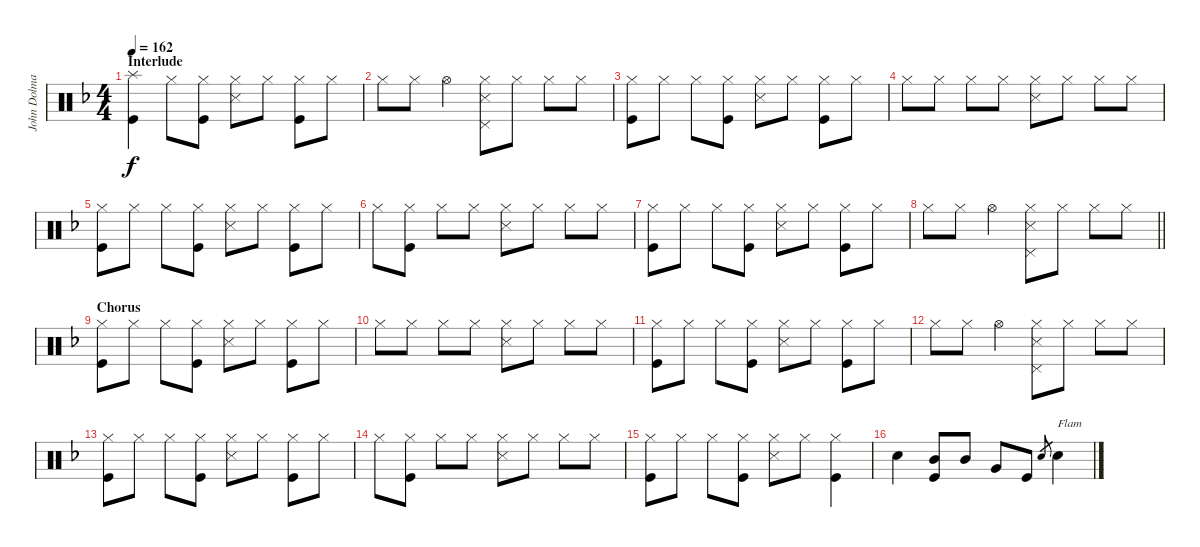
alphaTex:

\track ("John Dolmayan" "John Dolma") {instrument percussion}
\staff {score}
\articulation defaults
\ts (4 4)
\section ("" "Interlude")
\tempo 162
\clef neutral
\ks dminor
("Splash (hit)" "Kick (hit)").4{dy f} "Hi-Hat (closed)".8 ("Hi-Hat (closed)" "Kick (hit)").8 ("Hi-Hat (closed)" "Snare (side stick) 3").8 "Hi-Hat (closed)".8 ("Hi-Hat (closed)" "Kick (hit)").8 "Hi-Hat (closed)".8 |
"Hi-Hat (closed)".8 "Hi-Hat (closed)".8 "Hi-Hat (open)".4 ("Hi-Hat (closed)" "Pedal Hi-Hat (hit)" "Snare (side stick) 3").8 "Hi-Hat (closed)".8 "Hi-Hat (closed)".8 "Hi-Hat (closed)".8 |
("Hi-Hat (closed)" "Kick (hit)").8 "Hi-Hat (closed)".8 "Hi-Hat (closed)".8 ("Hi-Hat (closed)" "Kick (hit)").8 ("Hi-Hat (closed)" "Snare (side stick) 3").8 "Hi-Hat (closed)".8 ("Hi-Hat (closed)" "Kick (hit)").8 "Hi-Hat (closed)".8 |
"Hi-Hat (closed)".8 "Hi-Hat (closed)".8 "Hi-Hat (closed)".8 "Hi-Hat (closed)".8 ("Hi-Hat (closed)" "Snare (side stick) 3").8 "Hi-Hat (closed)".8 "Hi-Hat (closed)".8 "Hi-Hat (closed)".8 |
("Hi-Hat (closed)" "Kick (hit)").8 "Hi-Hat (closed)".8 "Hi-Hat (closed)".8 ("Hi-Hat (closed)" "Kick (hit)").8 ("Hi-Hat (closed)" "Snare (side stick) 3").8 "Hi-Hat (closed)".8 ("Hi-Hat (closed)" "Kick (hit)").8 "Hi-Hat (closed)".8 |
"Hi-Hat (closed)".8 ("Hi-Hat (closed)" "Kick (hit)").8 "Hi-Hat (closed)".8 "Hi-Hat (closed)".8 ("Hi-Hat (closed)" "Snare (side stick) 3").8 "Hi-Hat (closed)".8 "Hi-Hat (closed)".8 "Hi-Hat (closed)".8 |
("Hi-Hat (closed)" "Kick (hit)").8 "Hi-Hat (closed)".8 "Hi-Hat (closed)".8 ("Hi-Hat (closed)" "Kick (hit)").8 ("Hi-Hat (closed)" "Snare (side stick) 3").8 "Hi-Hat (closed)".8 ("Hi-Hat (closed)" "Kick (hit)").8 "Hi-Hat (closed)".8 |
\barLineRight lightlight "Hi-Hat (closed)".8 "Hi-Hat (closed)".8 "Hi-Hat (open)".4
("Hi-Hat (closed)" "Pedal Hi-Hat (hit)" "Snare (side stick) 3").8 "Hi-Hat (closed)".8 "Hi-Hat (closed)".8 "Hi-Hat (closed)".8 |
\section ("" "Chorus")
("Hi-Hat (closed)" "Kick (hit)").8 "Hi-Hat (closed)".8 "Hi-Hat (closed)".8 ("Hi-Hat (closed)" "Kick (hit)").8 ("Hi-Hat (closed)" "Snare (side stick) 3").8 "Hi-Hat (closed)".8 ("Hi-Hat (closed)" "Kick (hit)").8 "Hi-Hat (closed)".8 |
"Hi-Hat (closed)".8 "Hi-Hat (closed)".8 "Hi-Hat (closed)".8 "Hi-Hat (closed)".8 ("Hi-Hat (closed)" "Snare (side stick) 3").8 "Hi-Hat (closed)".8 "Hi-Hat (closed)".8 "Hi-Hat (closed)".8 |
("Hi-Hat (closed)" "Kick (hit)").8 "Hi-Hat (closed)".8 "Hi-Hat (closed)".8 ("Hi-Hat (closed)" "Kick (hit)").8 ("Hi-Hat (closed)" "Snare (side stick) 3").8 "Hi-Hat (closed)".8 ("Hi-Hat (closed)" "Kick (hit)").8 "Hi-Hat (closed)".8 |
"Hi-Hat (closed)".8 "Hi-Hat (closed)".8 "Hi-Hat (open)".4 ("Hi-Hat (closed)" "Pedal Hi-Hat (hit)" "Snare (side stick) 3").8 "Hi-Hat (closed)".8 "Hi-Hat (closed)".8 "Hi-Hat (closed)".8 |
("Hi-Hat (closed)" "Kick (hit)").8 "Hi-Hat (closed)".8 "Hi-Hat (closed)".8 ("Hi-Hat (closed)" "Kick (hit)").8 ("Hi-Hat (closed)" "Snare (side stick) 3").8 "Hi-Hat (closed)".8 ("Hi-Hat (closed)" "Kick (hit)").8 "Hi-Hat (closed)".8 |
"Hi-Hat (closed)".8 ("Hi-Hat (closed)" "Kick (hit)").8 "Hi-Hat (closed)".8 "Hi-Hat (closed)".8 ("Hi-Hat (closed)" "Snare (side stick) 3").8 "Hi-Hat (closed)".8 "Hi-Hat (closed)".8 "Hi-Hat (closed)".8 |
("Hi-Hat (closed)" "Kick (hit)").8 "Hi-Hat (closed)".8 "Hi-Hat (closed)".8 ("Hi-Hat (closed)" "Kick (hit)").8 ("Hi-Hat (closed)" "Snare (side stick) 3").8 "Hi-Hat (closed)".8 ("Hi-Hat (closed)" "Kick (hit)").4 |
"Snare (hit) 2".4 ("Kick (hit)" "Mid Tom (hit)").8 "Mid Tom (hit)".8 "Very Low Tom (hit)".8 "Kick (hit)".8 "Snare (hit) 2".8{gr} "Snare (hit) 2".4{txt "Flam"}
